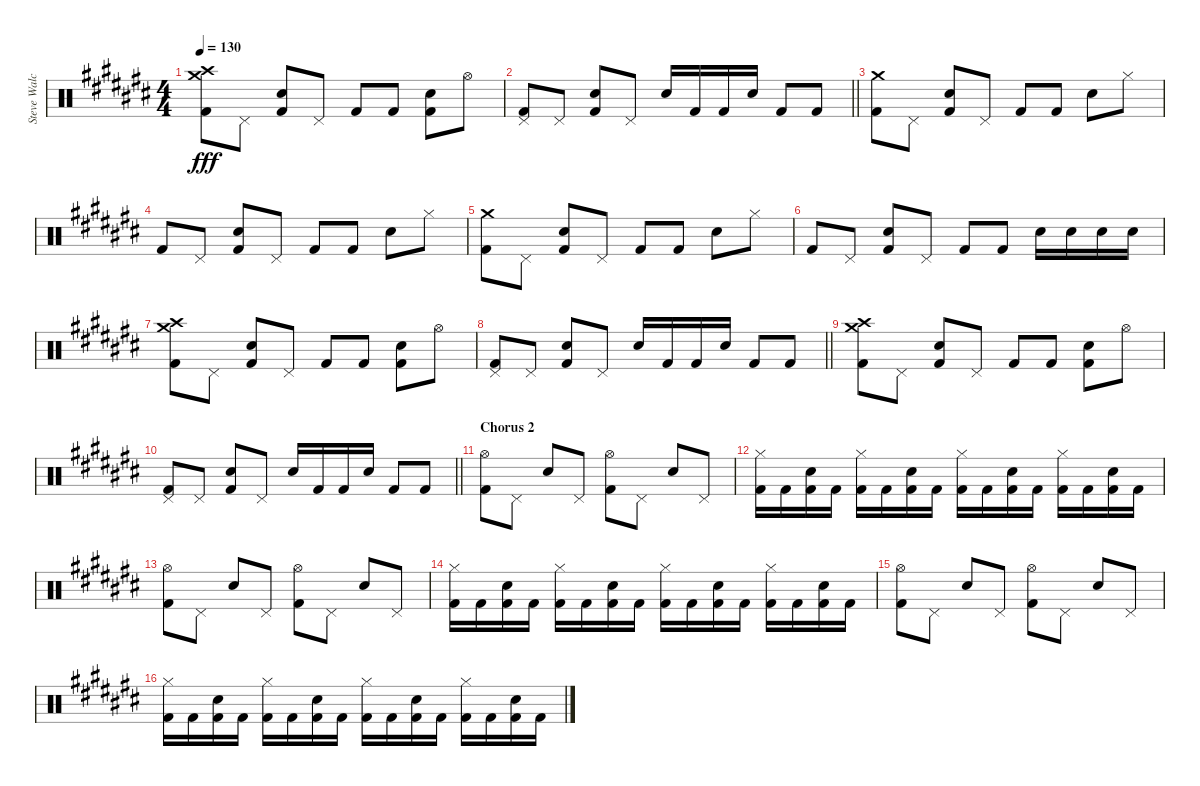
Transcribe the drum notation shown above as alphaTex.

\track ("Steve Walchoz" "Steve Walc") {instrument percussion}
\staff {score}
\articulation defaults
\ts (4 4)
\tempo 130
\clef neutral
\ks c#
("Crash medium (hit)" "Crash high (hit)" "Kick (hit) 2").8{dy fff} "Pedal Hi-Hat (hit)".8 ("Snare (hit) 2" "Kick (hit) 2").8 "Pedal Hi-Hat (hit)".8 "Kick (hit) 2".8 "Kick (hit) 2".8 ("Snare (hit) 2" "Kick (hit) 2").8 "Hi-Hat (open)".8 |
\barLineRight lightlight
("Pedal Hi-Hat (hit)" "Kick (hit) 2").8 "Pedal Hi-Hat (hit)".8 ("Snare (hit) 2" "Kick (hit) 2").8 "Pedal Hi-Hat (hit)".8 "Snare (hit) 2".16 "Kick (hit) 2".16 "Kick (hit) 2".16 "Snare (hit) 2".16 "Kick (hit) 2".8 "Kick (hit) 2".8 |
("Crash medium (hit)" "Kick (hit) 2").8 "Pedal Hi-Hat (hit)".8 ("Snare (hit) 2" "Kick (hit) 2").8 "Pedal Hi-Hat (hit)".8 "Kick (hit) 2".8 "Kick (hit) 2".8 "Snare (hit) 2".8 "Hi-Hat (closed)".8 |
"Kick (hit) 2".8 "Pedal Hi-Hat (hit)".8 ("Snare (hit) 2" "Kick (hit) 2").8 "Pedal Hi-Hat (hit)".8 "Kick (hit) 2".8 "Kick (hit) 2".8 "Snare (hit) 2".8 "Hi-Hat (closed)".8 |
("Crash medium (hit)" "Kick (hit) 2").8 "Pedal Hi-Hat (hit)".8 ("Snare (hit) 2" "Kick (hit) 2").8 "Pedal Hi-Hat (hit)".8 "Kick (hit) 2".8 "Kick (hit) 2".8 "Snare (hit) 2".8 "Hi-Hat (closed)".8 |
"Kick (hit) 2".8 "Pedal Hi-Hat (hit)".8 ("Snare (hit) 2" "Kick (hit) 2").8 "Pedal Hi-Hat (hit)".8 "Kick (hit) 2".8 "Kick (hit) 2".8 "Snare (hit) 2".16 "Snare (hit) 2".16 "Snare (hit) 2".16 "Snare (hit) 2".16 |
("Crash medium (hit)" "Crash high (hit)" "Kick (hit) 2").8 "Pedal Hi-Hat (hit)".8 ("Snare (hit) 2" "Kick (hit) 2").8 "Pedal Hi-Hat (hit)".8 "Kick (hit) 2".8 "Kick (hit) 2".8 ("Snare (hit) 2" "Kick (hit) 2").8 "Hi-Hat (open)".8 |
\barLineRight lightlight
("Pedal Hi-Hat (hit)" "Kick (hit) 2").8 "Pedal Hi-Hat (hit)".8 ("Snare (hit) 2" "Kick (hit) 2").8 "Pedal Hi-Hat (hit)".8 "Snare (hit) 2".16 "Kick (hit) 2".16 "Kick (hit) 2".16 "Snare (hit) 2".16 "Kick (hit) 2".8 "Kick (hit) 2".8 |
("Crash medium (hit)" "Crash high (hit)" "Kick (hit) 2").8 "Pedal Hi-Hat (hit)".8 ("Snare (hit) 2" "Kick (hit) 2").8 "Pedal Hi-Hat (hit)".8 "Kick (hit) 2".8 "Kick (hit) 2".8 ("Snare (hit) 2" "Kick (hit) 2").8 "Hi-Hat (open)".8 |
\barLineRight lightlight
("Pedal Hi-Hat (hit)" "Kick (hit) 2").8 "Pedal Hi-Hat (hit)".8 ("Snare (hit) 2" "Kick (hit) 2").8 "Pedal Hi-Hat (hit)".8 "Snare (hit) 2".16 "Kick (hit) 2".16 "Kick (hit) 2".16 "Snare (hit) 2".16 "Kick (hit) 2".8 "Kick (hit) 2".8 |
\section ("" "Chorus 2")
("Hi-Hat (open)" "Kick (hit) 2").8 "Pedal Hi-Hat (hit)".8 "Snare (hit) 2".8 "Pedal Hi-Hat (hit)".8 ("Hi-Hat (open)" "Kick (hit) 2").8 "Pedal Hi-Hat (hit)".8 "Snare (hit) 2".8 "Pedal Hi-Hat (hit)".8 |
("Hi-Hat (closed)" "Kick (hit) 2").16 "Kick (hit) 2".16 ("Snare (hit) 2" "Kick (hit) 2").16 "Kick (hit) 2".16 ("Hi-Hat (closed)" "Kick (hit) 2").16 "Kick (hit) 2".16 ("Snare (hit) 2" "Kick (hit) 2").16 "Kick (hit) 2".16 ("Hi-Hat (closed)" "Kick (hit) 2").16 "Kick (hit) 2".16 ("Snare (hit) 2" "Kick (hit) 2").16 "Kick (hit) 2".16 ("Hi-Hat (closed)" "Kick (hit) 2").16 "Kick (hit) 2".16 ("Snare (hit) 2" "Kick (hit) 2").16 "Kick (hit) 2".16 |
("Hi-Hat (open)" "Kick (hit) 2").8 "Pedal Hi-Hat (hit)".8 "Snare (hit) 2".8 "Pedal Hi-Hat (hit)".8 ("Hi-Hat (open)" "Kick (hit) 2").8 "Pedal Hi-Hat (hit)".8 "Snare (hit) 2".8 "Pedal Hi-Hat (hit)".8 |
("Hi-Hat (closed)" "Kick (hit) 2").16 "Kick (hit) 2".16 ("Snare (hit) 2" "Kick (hit) 2").16 "Kick (hit) 2".16 ("Hi-Hat (closed)" "Kick (hit) 2").16 "Kick (hit) 2".16 ("Snare (hit) 2" "Kick (hit) 2").16 "Kick (hit) 2".16 ("Hi-Hat (closed)" "Kick (hit) 2").16 "Kick (hit) 2".16 ("Snare (hit) 2" "Kick (hit) 2").16 "Kick (hit) 2".16 ("Hi-Hat (closed)" "Kick (hit) 2").16 "Kick (hit) 2".16 ("Snare (hit) 2" "Kick (hit) 2").16 "Kick (hit) 2".16 |
("Hi-Hat (open)" "Kick (hit) 2").8 "Pedal Hi-Hat (hit)".8 "Snare (hit) 2".8 "Pedal Hi-Hat (hit)".8 ("Hi-Hat (open)" "Kick (hit) 2").8 "Pedal Hi-Hat (hit)".8 "Snare (hit) 2".8 "Pedal Hi-Hat (hit)".8 |
("Hi-Hat (closed)" "Kick (hit) 2").16 "Kick (hit) 2".16 ("Snare (hit) 2" "Kick (hit) 2").16 "Kick (hit) 2".16 ("Hi-Hat (closed)" "Kick (hit) 2").16 "Kick (hit) 2".16 ("Snare (hit) 2" "Kick (hit) 2").16 "Kick (hit) 2".16 ("Hi-Hat (closed)" "Kick (hit) 2").16 "Kick (hit) 2".16 ("Snare (hit) 2" "Kick (hit) 2").16 "Kick (hit) 2".16 ("Hi-Hat (closed)" "Kick (hit) 2").16 "Kick (hit) 2".16 ("Snare (hit) 2" "Kick (hit) 2").16 "Kick (hit) 2".16
